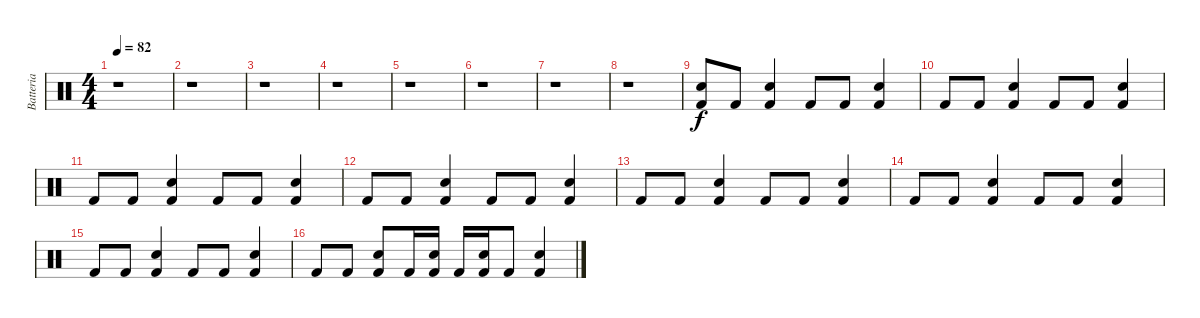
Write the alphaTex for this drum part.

\track ("Batteria" "Batteria") {instrument percussion}
\staff {score}
\articulation defaults
\ts (4 4)
\tempo 82
\clef neutral
\ks c
r.1{dy f} |
r.1 |
r.1 |
r.1 |
r.1 |
r.1 |
r.1 |
r.1 |
("Snare (hit) 2" "Kick (hit) 2").8 "Kick (hit) 2".8 ("Snare (hit) 2" "Kick (hit) 2").4 "Kick (hit) 2".8 "Kick (hit) 2".8 ("Snare (hit) 2" "Kick (hit) 2").4 |
"Kick (hit) 2".8 "Kick (hit) 2".8 ("Snare (hit) 2" "Kick (hit) 2").4 "Kick (hit) 2".8 "Kick (hit) 2".8 ("Snare (hit) 2" "Kick (hit) 2").4 |
"Kick (hit) 2".8 "Kick (hit) 2".8 ("Snare (hit) 2" "Kick (hit) 2").4 "Kick (hit) 2".8 "Kick (hit) 2".8 ("Snare (hit) 2" "Kick (hit) 2").4 |
"Kick (hit) 2".8 "Kick (hit) 2".8 ("Snare (hit) 2" "Kick (hit) 2").4 "Kick (hit) 2".8 "Kick (hit) 2".8 ("Snare (hit) 2" "Kick (hit) 2").4 |
"Kick (hit) 2".8 "Kick (hit) 2".8 ("Snare (hit) 2" "Kick (hit) 2").4 "Kick (hit) 2".8 "Kick (hit) 2".8 ("Snare (hit) 2" "Kick (hit) 2").4 |
"Kick (hit) 2".8 "Kick (hit) 2".8 ("Snare (hit) 2" "Kick (hit) 2").4 "Kick (hit) 2".8 "Kick (hit) 2".8 ("Snare (hit) 2" "Kick (hit) 2").4 |
"Kick (hit) 2".8 "Kick (hit) 2".8 ("Snare (hit) 2" "Kick (hit) 2").4 "Kick (hit) 2".8 "Kick (hit) 2".8 ("Snare (hit) 2" "Kick (hit) 2").4 |
"Kick (hit) 2".8 "Kick (hit) 2".8 ("Snare (hit) 2" "Kick (hit) 2").8 "Kick (hit) 2".16 ("Snare (hit) 2" "Kick (hit) 2").16 "Kick (hit) 2".16 ("Snare (hit) 2" "Kick (hit) 2").16 "Kick (hit) 2".8 ("Snare (hit) 2" "Kick (hit) 2").4
